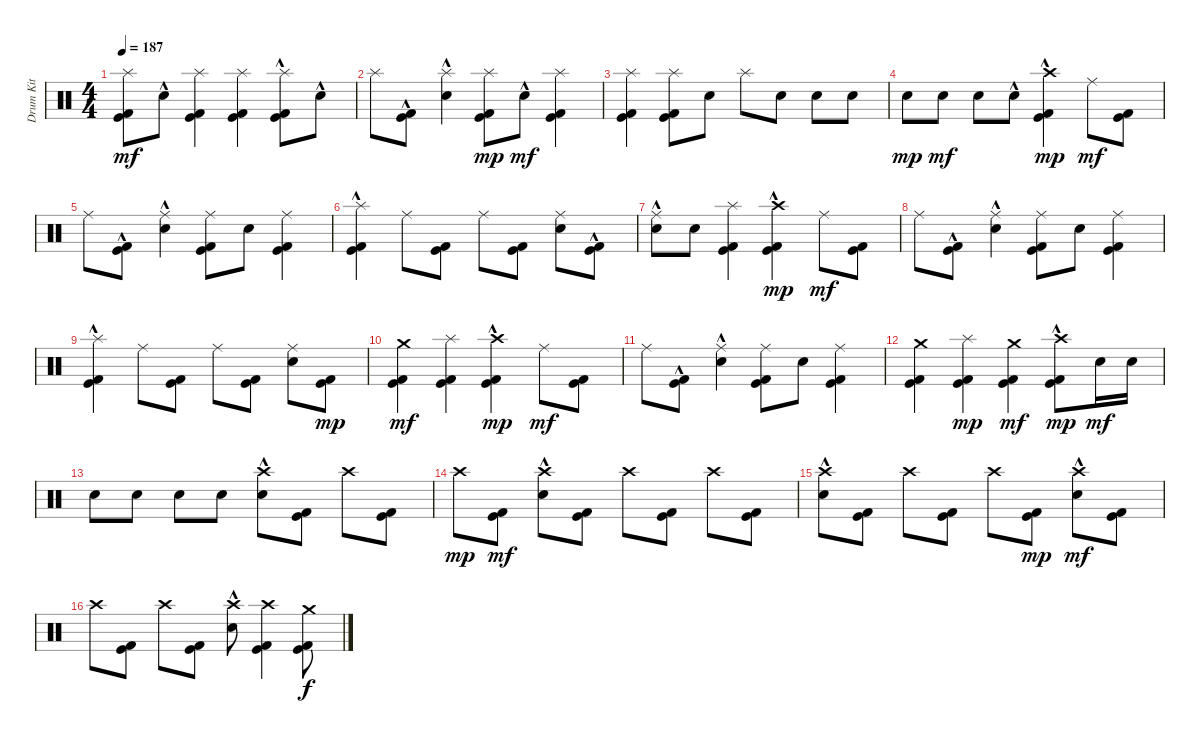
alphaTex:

\track ("Drum Kit" "Drum Kit") {instrument percussion}
\staff {score}
\articulation defaults
\ts (4 4)
\tempo 187
\clef neutral
\ks c
("Kick (hit) 2" "Kick (hit)" "Splash (hit)").8{dy mf} "Electric Snare (hit)"{hac}.8 ("Kick (hit) 2" "Kick (hit)" "Splash (hit)").4 ("Kick (hit) 2" "Kick (hit)" "Splash (hit)").4 ("Kick (hit) 2"{hac} "Kick (hit)"{hac} "Splash (hit)").8 "Electric Snare (hit)"{hac}.8 |
"Splash (hit)".8 ("Kick (hit) 2"{hac} "Kick (hit)"{hac}).8 ("Electric Snare (hit)"{hac} "Splash (hit)").4 ("Kick (hit) 2" "Kick (hit)" "Splash (hit)").8{dy mp} "Electric Snare (hit)"{hac}.8{dy mf} ("Kick (hit) 2" "Kick (hit)" "Splash (hit)").4 |
("Kick (hit) 2" "Kick (hit)" "Splash (hit)").4 ("Kick (hit) 2" "Kick (hit)" "Splash (hit)").8 "Electric Snare (hit)".8 "Splash (hit)".8 "Electric Snare (hit)".8 "Electric Snare (hit)".8 "Electric Snare (hit)".8 |
"Electric Snare (hit)".8{dy mp} "Electric Snare (hit)".8{dy mf} "Electric Snare (hit)".8 "Electric Snare (hit)"{hac}.8 ("Kick (hit) 2"{hac} "Kick (hit)"{hac} "Crash high (hit)").4{dy mp} "Ride (middle)".8{dy mf} ("Kick (hit) 2" "Kick (hit)").8 |
"Ride (middle)".8 ("Kick (hit) 2"{hac} "Kick (hit)"{hac}).8 ("Electric Snare (hit)"{hac} "Ride (middle)").4 ("Kick (hit) 2" "Kick (hit)" "Ride (middle)").8 "Electric Snare (hit)".8 ("Kick (hit) 2" "Kick (hit)" "Ride (middle)").4 |
("Kick (hit) 2"{hac} "Kick (hit)"{hac} "Splash (hit)").4 "Ride (middle)".8 ("Kick (hit) 2" "Kick (hit)").8 "Ride (middle)".8 ("Kick (hit) 2" "Kick (hit)").8 ("Electric Snare (hit)" "Ride (middle)").8 ("Kick (hit) 2"{hac} "Kick (hit)"{hac}).8 |
("Electric Snare (hit)" "Ride (middle)"{hac}).8 "Electric Snare (hit)".8 ("Kick (hit) 2" "Kick (hit)" "Splash (hit)").4 ("Kick (hit) 2"{hac} "Kick (hit)"{hac} "Crash high (hit)").4{dy mp} "Ride (middle)".8{dy mf} ("Kick (hit) 2" "Kick (hit)").8 |
"Ride (middle)".8 ("Kick (hit) 2"{hac} "Kick (hit)"{hac}).8 ("Electric Snare (hit)"{hac} "Ride (middle)").4 ("Kick (hit) 2" "Kick (hit)" "Ride (middle)").8 "Electric Snare (hit)".8 ("Kick (hit) 2" "Kick (hit)" "Ride (middle)").4 |
("Kick (hit) 2"{hac} "Kick (hit)"{hac} "Splash (hit)").4 "Ride (middle)".8 ("Kick (hit) 2" "Kick (hit)").8 "Ride (middle)".8 ("Kick (hit) 2" "Kick (hit)").8 ("Electric Snare (hit)" "Ride (middle)").8 ("Kick (hit) 2" "Kick (hit)").8{dy mp} |
("Kick (hit) 2" "Kick (hit)" "Crash medium (hit)").4{dy mf} ("Kick (hit) 2" "Kick (hit)" "Splash (hit)").4 ("Kick (hit) 2"{hac} "Kick (hit)"{hac} "Crash high (hit)").4{dy mp} "Ride (middle)".8{dy mf} ("Kick (hit) 2" "Kick (hit)").8 |
"Ride (middle)".8 ("Kick (hit) 2"{hac} "Kick (hit)"{hac}).8 ("Electric Snare (hit)"{hac} "Ride (middle)").4 ("Kick (hit) 2" "Kick (hit)" "Ride (middle)").8 "Electric Snare (hit)".8 ("Kick (hit) 2" "Kick (hit)" "Ride (middle)").4 |
("Kick (hit) 2" "Kick (hit)" "Crash medium (hit)").4 ("Kick (hit) 2" "Kick (hit)" "Splash (hit)").4{dy mp} ("Kick (hit) 2" "Kick (hit)" "Crash medium (hit)").4{dy mf} ("Kick (hit) 2"{hac} "Kick (hit)"{hac} "Crash high (hit)"{hac}).8{dy mp} "Electric Snare (hit)".16{dy mf} "Electric Snare (hit)".16 |
"Electric Snare (hit)".8 "Electric Snare (hit)".8 "Electric Snare (hit)".8 "Electric Snare (hit)".8 ("Electric Snare (hit)"{hac} "Crash high (hit)").8 ("Kick (hit) 2" "Kick (hit)").8 "Crash high (hit)".8 ("Kick (hit) 2" "Kick (hit)").8 |
"Crash high (hit)".8{dy mp} ("Kick (hit) 2" "Kick (hit)").8{dy mf} ("Electric Snare (hit)"{hac} "Crash high (hit)").8 ("Kick (hit) 2" "Kick (hit)").8 "Crash high (hit)".8 ("Kick (hit) 2" "Kick (hit)").8 "Crash high (hit)".8 ("Kick (hit) 2" "Kick (hit)").8 |
("Electric Snare (hit)"{hac} "Crash high (hit)").8 ("Kick (hit) 2" "Kick (hit)").8 "Crash high (hit)".8 ("Kick (hit) 2" "Kick (hit)").8 "Crash high (hit)".8 ("Kick (hit) 2" "Kick (hit)").8{dy mp} ("Electric Snare (hit)"{hac} "Crash high (hit)").8{dy mf} ("Kick (hit) 2" "Kick (hit)").8 |
"Crash high (hit)".8 ("Kick (hit) 2" "Kick (hit)").8 "Crash high (hit)".8 ("Kick (hit) 2" "Kick (hit)").8 ("Electric Snare (hit)"{hac} "Crash high (hit)").8 ("Kick (hit) 2" "Kick (hit)" "Crash high (hit)").4 ("Kick (hit) 2" "Kick (hit)" "Crash medium (hit)").8{dy f}
